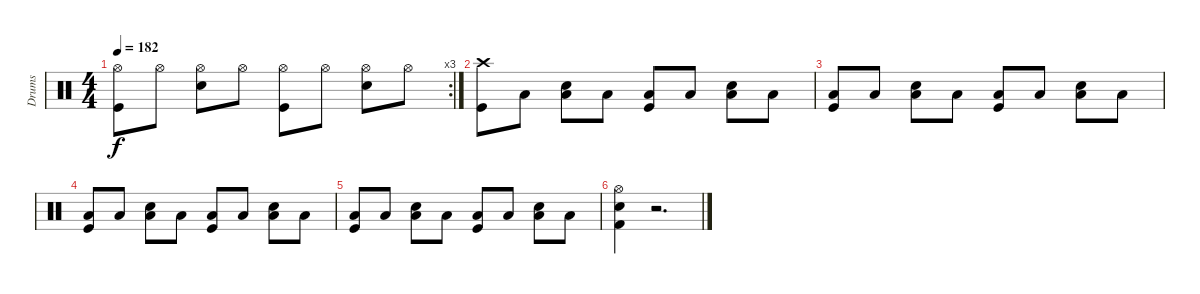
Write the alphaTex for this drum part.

\track ("Drums" "Drums") {instrument percussion}
\staff {score}
\articulation defaults
\rc 3
\ts (4 4)
\tempo 182
\clef neutral
\ks c
("Hi-Hat (open)" "Kick (hit)").8{dy f} "Hi-Hat (open)".8 ("Hi-Hat (open)" "Snare (hit) 2").8 "Hi-Hat (open)".8 ("Hi-Hat (open)" "Kick (hit)").8 "Hi-Hat (open)".8 ("Hi-Hat (open)" "Snare (hit) 2").8 "Hi-Hat (open)".8 |
("Crash high (hit)" "Kick (hit)").8 "Low Floor Tom (hit)".8 ("Snare (hit) 2" "Low Floor Tom (hit)").8 "Low Floor Tom (hit)".8 ("Low Floor Tom (hit)" "Kick (hit)").8 "Low Floor Tom (hit)".8 ("Snare (hit) 2" "Low Floor Tom (hit)").8 "Low Floor Tom (hit)".8 |
("Low Floor Tom (hit)" "Kick (hit)").8 "Low Floor Tom (hit)".8 ("Snare (hit) 2" "Low Floor Tom (hit)").8 "Low Floor Tom (hit)".8 ("Low Floor Tom (hit)" "Kick (hit)").8 "Low Floor Tom (hit)".8 ("Snare (hit) 2" "Low Floor Tom (hit)").8 "Low Floor Tom (hit)".8 |
("Low Floor Tom (hit)" "Kick (hit)").8 "Low Floor Tom (hit)".8 ("Snare (hit) 2" "Low Floor Tom (hit)").8 "Low Floor Tom (hit)".8 ("Low Floor Tom (hit)" "Kick (hit)").8 "Low Floor Tom (hit)".8 ("Snare (hit) 2" "Low Floor Tom (hit)").8 "Low Floor Tom (hit)".8 |
("Low Floor Tom (hit)" "Kick (hit)").8 "Low Floor Tom (hit)".8 ("Snare (hit) 2" "Low Floor Tom (hit)").8 "Low Floor Tom (hit)".8 ("Low Floor Tom (hit)" "Kick (hit)").8 "Low Floor Tom (hit)".8 ("Snare (hit) 2" "Low Floor Tom (hit)").8 "Low Floor Tom (hit)".8 |
("Hi-Hat (open)" "Kick (hit) 2" "Snare (hit) 2").4 r.2{d}
